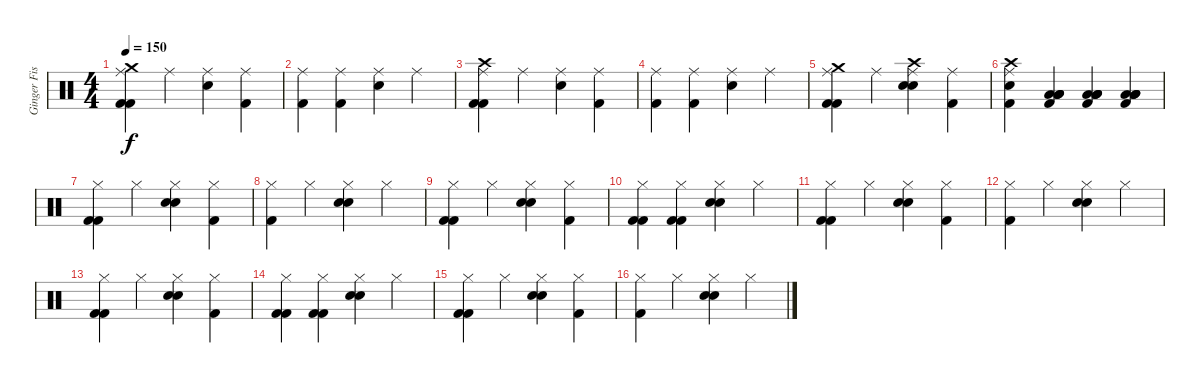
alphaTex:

\track ("Ginger Fish" "Ginger Fis") {instrument percussion}
\staff {score}
\articulation defaults
\ts (4 4)
\tempo 150
\clef neutral
\ks c
("Crash medium (hit)" "Ride (middle)" "Kick (hit) 2" "Kick (hit) 2").4{dy f} "Ride (middle)".4 ("Ride (middle)" "Electric Snare (hit)").4 ("Ride (middle)" "Kick (hit) 2").4 |
("Ride (middle)" "Kick (hit) 2").4 ("Ride (middle)" "Kick (hit) 2").4 ("Ride (middle)" "Electric Snare (hit)").4 "Ride (middle)".4 |
("Crash high (hit)" "Ride (middle)" "Kick (hit) 2" "Kick (hit) 2").4 "Ride (middle)".4 ("Ride (middle)" "Electric Snare (hit)").4 ("Ride (middle)" "Kick (hit) 2").4 |
("Ride (middle)" "Kick (hit) 2").4 ("Ride (middle)" "Kick (hit) 2").4 ("Ride (middle)" "Electric Snare (hit)").4 "Ride (middle)".4 |
("Crash medium (hit)" "Ride (middle)" "Kick (hit) 2" "Kick (hit) 2").4 "Ride (middle)".4 ("Crash high (hit)" "Ride (middle)" "Electric Snare (hit)" "Electric Snare (hit)").4 ("Ride (middle)" "Kick (hit) 2").4 |
("Crash high (hit)" "Ride (middle)" "Electric Snare (hit)" "Kick (hit) 2").4 ("Kick (hit) 2" "Low Tom (hit)" "Low Tom (hit)" "Low Tom (hit)" "Low Tom (hit)").4 ("Kick (hit) 2" "Low Tom (hit)" "Low Tom (hit)" "Low Tom (hit)" "Low Tom (hit)").4 ("Kick (hit) 2" "Low Tom (hit)" "Low Tom (hit)" "Low Tom (hit)" "Low Tom (hit)").4 |
("Hi-Hat (closed)" "Kick (hit) 2" "Kick (hit) 2").4 "Hi-Hat (closed)".4 ("Hi-Hat (closed)" "Snare (hit) 2" "Snare (hit) 2").4 ("Hi-Hat (closed)" "Kick (hit) 2").4 |
("Hi-Hat (closed)" "Kick (hit) 2").4 "Hi-Hat (closed)".4 ("Hi-Hat (closed)" "Snare (hit) 2" "Snare (hit) 2").4 "Hi-Hat (closed)".4 |
("Hi-Hat (closed)" "Kick (hit) 2" "Kick (hit) 2").4 "Hi-Hat (closed)".4 ("Hi-Hat (closed)" "Snare (hit) 2" "Snare (hit) 2").4 ("Hi-Hat (closed)" "Kick (hit) 2").4 |
("Hi-Hat (closed)" "Kick (hit) 2" "Kick (hit) 2").4 ("Hi-Hat (closed)" "Kick (hit) 2" "Kick (hit) 2").4 ("Hi-Hat (closed)" "Snare (hit) 2" "Snare (hit) 2").4 "Hi-Hat (closed)".4 |
("Hi-Hat (closed)" "Kick (hit) 2" "Kick (hit) 2").4 "Hi-Hat (closed)".4 ("Hi-Hat (closed)" "Snare (hit) 2" "Snare (hit) 2").4 ("Hi-Hat (closed)" "Kick (hit) 2").4 |
("Hi-Hat (closed)" "Kick (hit) 2").4 "Hi-Hat (closed)".4 ("Hi-Hat (closed)" "Snare (hit) 2" "Snare (hit) 2").4 "Hi-Hat (closed)".4 |
("Hi-Hat (closed)" "Kick (hit) 2" "Kick (hit) 2").4 "Hi-Hat (closed)".4 ("Hi-Hat (closed)" "Snare (hit) 2" "Snare (hit) 2").4 ("Hi-Hat (closed)" "Kick (hit) 2").4 |
("Hi-Hat (closed)" "Kick (hit) 2" "Kick (hit) 2").4 ("Hi-Hat (closed)" "Kick (hit) 2" "Kick (hit) 2").4 ("Hi-Hat (closed)" "Snare (hit) 2" "Snare (hit) 2").4 "Hi-Hat (closed)".4 |
("Hi-Hat (closed)" "Kick (hit) 2" "Kick (hit) 2").4 "Hi-Hat (closed)".4 ("Hi-Hat (closed)" "Snare (hit) 2" "Snare (hit) 2").4 ("Hi-Hat (closed)" "Kick (hit) 2").4 |
("Hi-Hat (closed)" "Kick (hit) 2").4 "Hi-Hat (closed)".4 ("Hi-Hat (closed)" "Snare (hit) 2" "Snare (hit) 2").4 "Hi-Hat (closed)".4
